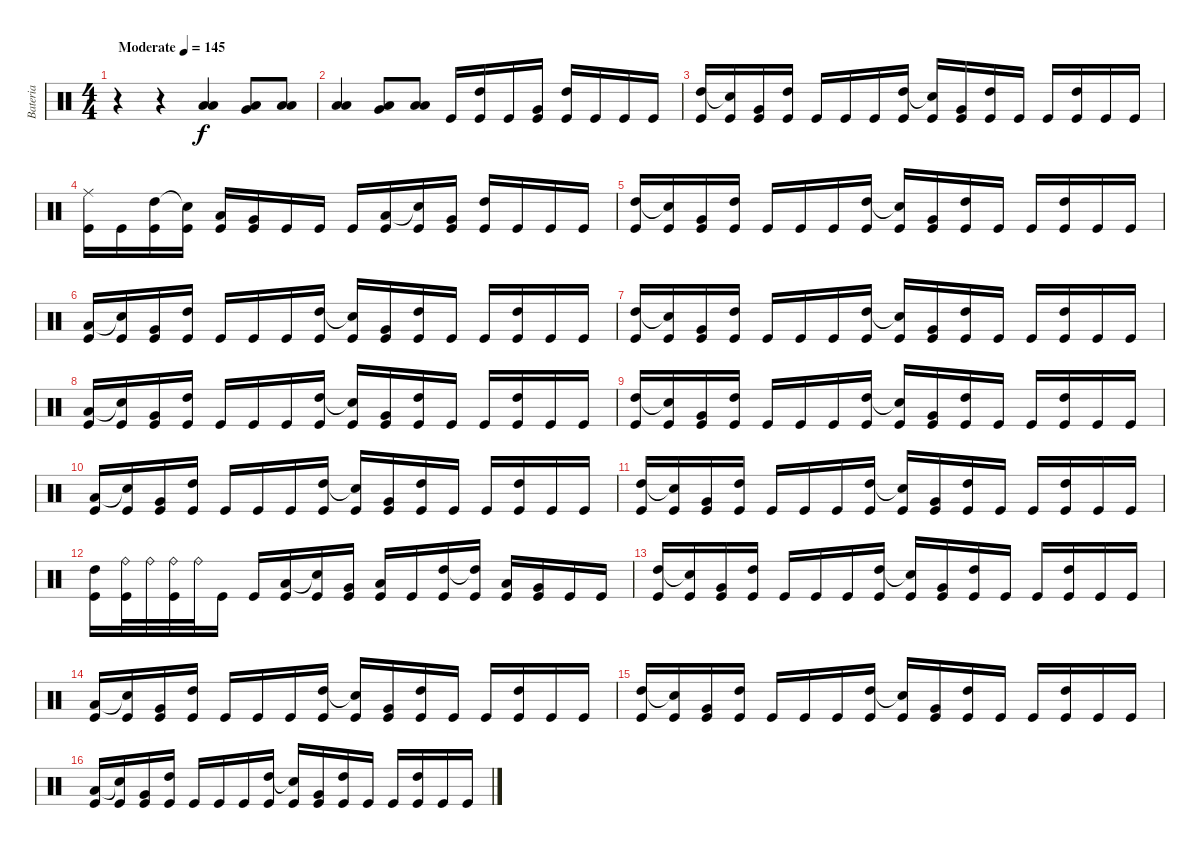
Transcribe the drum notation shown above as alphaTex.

\track ("Bateria" "Bateria") {instrument percussion}
\staff {score}
\articulation defaults
\ts (4 4)
\tempo (145 "Moderate")
\clef neutral
\ks c
r.4{dy f} r.4 ("Low Tom (hit)" "Low Floor Tom (hit)").4 ("Very Low Tom (hit)" "Low Floor Tom (hit)").8 ("Low Tom (hit)" "Low Floor Tom (hit)").8 |
("Low Tom (hit)" "Low Floor Tom (hit)").4 ("Very Low Tom (hit)" "Low Floor Tom (hit)").8 ("Low Tom (hit)" "Low Floor Tom (hit)").8 "Kick (hit)".16 ("High Tom (hit)" "Kick (hit)").16 "Kick (hit)".16 ("Very Low Tom (hit)" "Kick (hit)").16 ("High Tom (hit)" "Kick (hit)").16 "Kick (hit)".16 "Kick (hit)".16 "Kick (hit)".16 |
("High Tom (hit)" "Kick (hit)").16 ("Snare (hit)"{t} "Kick (hit)").16 ("Very Low Tom (hit)" "Kick (hit)").16 ("High Tom (hit)" "Kick (hit)").16 "Kick (hit)".16 "Kick (hit)".16 "Kick (hit)".16 ("High Tom (hit)" "Kick (hit)").16 ("Snare (hit)"{t} "Kick (hit)").16 ("Very Low Tom (hit)" "Kick (hit)").16 ("High Tom (hit)" "Kick (hit)").16 "Kick (hit)".16 "Kick (hit)".16 ("High Tom (hit)" "Kick (hit)").16 "Kick (hit)".16 "Kick (hit)".16 |
("Ride (middle)" "Kick (hit)").16 "Kick (hit)".16 ("High Tom (hit)" "Kick (hit)").16 ("Snare (hit)"{t} "Kick (hit)").16 ("Low Tom (hit)" "Kick (hit)").16 ("Very Low Tom (hit)" "Kick (hit)").16 "Kick (hit)".16 "Kick (hit)".16 "Kick (hit)".16 ("Low Tom (hit)" "Kick (hit)").16 ("Snare (hit)"{t} "Kick (hit)").16 ("Very Low Tom (hit)" "Kick (hit)").16 ("High Tom (hit)" "Kick (hit)").16 "Kick (hit)".16 "Kick (hit)".16 "Kick (hit)".16 |
("High Tom (hit)" "Kick (hit)").16 ("Snare (hit)"{t} "Kick (hit)").16 ("Very Low Tom (hit)" "Kick (hit)").16 ("High Tom (hit)" "Kick (hit)").16 "Kick (hit)".16 "Kick (hit)".16 "Kick (hit)".16 ("High Tom (hit)" "Kick (hit)").16 ("Snare (hit)"{t} "Kick (hit)").16 ("Very Low Tom (hit)" "Kick (hit)").16 ("High Tom (hit)" "Kick (hit)").16 "Kick (hit)".16 "Kick (hit)".16 ("High Tom (hit)" "Kick (hit)").16 "Kick (hit)".16 "Kick (hit)".16 |
("Low Floor Tom (hit)" "Kick (hit)").16 ("Snare (hit)"{t} "Kick (hit)").16 ("Very Low Tom (hit)" "Kick (hit)").16 ("High Tom (hit)" "Kick (hit)").16 "Kick (hit)".16 "Kick (hit)".16 "Kick (hit)".16 ("High Tom (hit)" "Kick (hit)").16 ("Snare (hit)"{t} "Kick (hit)").16 ("Very Low Tom (hit)" "Kick (hit)").16 ("High Tom (hit)" "Kick (hit)").16 "Kick (hit)".16 "Kick (hit)".16 ("High Tom (hit)" "Kick (hit)").16 "Kick (hit)".16 "Kick (hit)".16 |
("High Tom (hit)" "Kick (hit)").16 ("Snare (hit)"{t} "Kick (hit)").16 ("Very Low Tom (hit)" "Kick (hit)").16 ("High Tom (hit)" "Kick (hit)").16 "Kick (hit)".16 "Kick (hit)".16 "Kick (hit)".16 ("High Tom (hit)" "Kick (hit)").16 ("Snare (hit)"{t} "Kick (hit)").16 ("Very Low Tom (hit)" "Kick (hit)").16 ("High Tom (hit)" "Kick (hit)").16 "Kick (hit)".16 "Kick (hit)".16 ("High Tom (hit)" "Kick (hit)").16 "Kick (hit)".16 "Kick (hit)".16 |
("Low Floor Tom (hit)" "Kick (hit)").16 ("Snare (hit)"{t} "Kick (hit)").16 ("Very Low Tom (hit)" "Kick (hit)").16 ("High Tom (hit)" "Kick (hit)").16 "Kick (hit)".16 "Kick (hit)".16 "Kick (hit)".16 ("High Tom (hit)" "Kick (hit)").16 ("Snare (hit)"{t} "Kick (hit)").16 ("Very Low Tom (hit)" "Kick (hit)").16 ("High Tom (hit)" "Kick (hit)").16 "Kick (hit)".16 "Kick (hit)".16 ("High Tom (hit)" "Kick (hit)").16 "Kick (hit)".16 "Kick (hit)".16 |
("High Tom (hit)" "Kick (hit)").16 ("Snare (hit)"{t} "Kick (hit)").16 ("Very Low Tom (hit)" "Kick (hit)").16 ("High Tom (hit)" "Kick (hit)").16 "Kick (hit)".16 "Kick (hit)".16 "Kick (hit)".16 ("High Tom (hit)" "Kick (hit)").16 ("Snare (hit)"{t} "Kick (hit)").16 ("Very Low Tom (hit)" "Kick (hit)").16 ("High Tom (hit)" "Kick (hit)").16 "Kick (hit)".16 "Kick (hit)".16 ("High Tom (hit)" "Kick (hit)").16 "Kick (hit)".16 "Kick (hit)".16 |
("Low Floor Tom (hit)" "Kick (hit)").16 ("Snare (hit)"{t} "Kick (hit)").16 ("Very Low Tom (hit)" "Kick (hit)").16 ("High Tom (hit)" "Kick (hit)").16 "Kick (hit)".16 "Kick (hit)".16 "Kick (hit)".16 ("High Tom (hit)" "Kick (hit)").16 ("Snare (hit)"{t} "Kick (hit)").16 ("Very Low Tom (hit)" "Kick (hit)").16 ("High Tom (hit)" "Kick (hit)").16 "Kick (hit)".16 "Kick (hit)".16 ("High Tom (hit)" "Kick (hit)").16 "Kick (hit)".16 "Kick (hit)".16 |
("High Tom (hit)" "Kick (hit)").16 ("Snare (hit)"{t} "Kick (hit)").16 ("Very Low Tom (hit)" "Kick (hit)").16 ("High Tom (hit)" "Kick (hit)").16 "Kick (hit)".16 "Kick (hit)".16 "Kick (hit)".16 ("High Tom (hit)" "Kick (hit)").16 ("Snare (hit)"{t} "Kick (hit)").16 ("Very Low Tom (hit)" "Kick (hit)").16 ("High Tom (hit)" "Kick (hit)").16 "Kick (hit)".16 "Kick (hit)".16 ("High Tom (hit)" "Kick (hit)").16 "Kick (hit)".16 "Kick (hit)".16 |
("High Tom (hit)" "Kick (hit)").16 ("Ride (bell)" "Kick (hit)").32 "Ride (bell)".32 ("Ride (bell)" "Kick (hit)").32 "Ride (bell)".32 "Kick (hit)".16 "Kick (hit)".16 ("Low Floor Tom (hit)" "Kick (hit)").16 ("Snare (hit)"{t} "Kick (hit)").16 ("Very Low Tom (hit)" "Kick (hit)").16 ("Low Tom (hit)" "Kick (hit)").16 "Kick (hit)".16 ("High Tom (hit)" "Kick (hit)").16 ("High Tom (hit)"{t} "Kick (hit)").16 ("Low Tom (hit)" "Kick (hit)").16 ("Very Low Tom (hit)" "Kick (hit)").16 "Kick (hit)".16 "Kick (hit)".16 |
("High Tom (hit)" "Kick (hit)").16 ("Snare (hit)"{t} "Kick (hit)").16 ("Very Low Tom (hit)" "Kick (hit)").16 ("High Tom (hit)" "Kick (hit)").16 "Kick (hit)".16 "Kick (hit)".16 "Kick (hit)".16 ("High Tom (hit)" "Kick (hit)").16 ("Snare (hit)"{t} "Kick (hit)").16 ("Very Low Tom (hit)" "Kick (hit)").16 ("High Tom (hit)" "Kick (hit)").16 "Kick (hit)".16 "Kick (hit)".16 ("High Tom (hit)" "Kick (hit)").16 "Kick (hit)".16 "Kick (hit)".16 |
("Low Floor Tom (hit)" "Kick (hit)").16 ("Snare (hit)"{t} "Kick (hit)").16 ("Very Low Tom (hit)" "Kick (hit)").16 ("High Tom (hit)" "Kick (hit)").16 "Kick (hit)".16 "Kick (hit)".16 "Kick (hit)".16 ("High Tom (hit)" "Kick (hit)").16 ("Snare (hit)"{t} "Kick (hit)").16 ("Very Low Tom (hit)" "Kick (hit)").16 ("High Tom (hit)" "Kick (hit)").16 "Kick (hit)".16 "Kick (hit)".16 ("High Tom (hit)" "Kick (hit)").16 "Kick (hit)".16 "Kick (hit)".16 |
("High Tom (hit)" "Kick (hit)").16 ("Snare (hit)"{t} "Kick (hit)").16 ("Very Low Tom (hit)" "Kick (hit)").16 ("High Tom (hit)" "Kick (hit)").16 "Kick (hit)".16 "Kick (hit)".16 "Kick (hit)".16 ("High Tom (hit)" "Kick (hit)").16 ("Snare (hit)"{t} "Kick (hit)").16 ("Very Low Tom (hit)" "Kick (hit)").16 ("High Tom (hit)" "Kick (hit)").16 "Kick (hit)".16 "Kick (hit)".16 ("High Tom (hit)" "Kick (hit)").16 "Kick (hit)".16 "Kick (hit)".16 |
("Low Floor Tom (hit)" "Kick (hit)").16 ("Snare (hit)"{t} "Kick (hit)").16 ("Very Low Tom (hit)" "Kick (hit)").16 ("High Tom (hit)" "Kick (hit)").16 "Kick (hit)".16 "Kick (hit)".16 "Kick (hit)".16 ("High Tom (hit)" "Kick (hit)").16 ("Snare (hit)"{t} "Kick (hit)").16 ("Very Low Tom (hit)" "Kick (hit)").16 ("High Tom (hit)" "Kick (hit)").16 "Kick (hit)".16 "Kick (hit)".16 ("High Tom (hit)" "Kick (hit)").16 "Kick (hit)".16 "Kick (hit)".16
